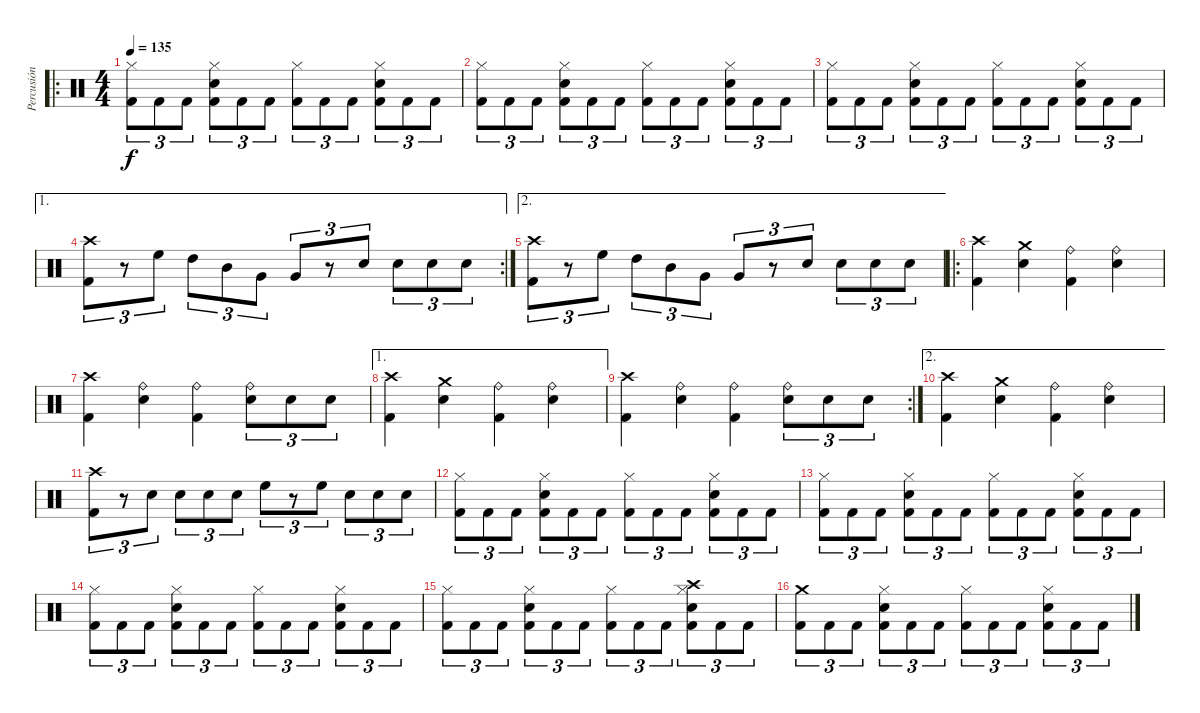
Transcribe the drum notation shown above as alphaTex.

\track ("Percusión" "Percusión") {instrument percussion}
\staff {score}
\articulation defaults
\ro
\ts (4 4)
\tempo 135
\clef neutral
\ks c
("Hi-Hat (closed)" "Kick (hit) 2").8{tu (3 2) dy f} "Kick (hit) 2".8{tu (3 2)} "Kick (hit) 2".8{tu (3 2)} ("Hi-Hat (closed)" "Snare (hit) 2" "Kick (hit) 2").8{tu (3 2)} "Kick (hit) 2".8{tu (3 2)} "Kick (hit) 2".8{tu (3 2)} ("Hi-Hat (closed)" "Kick (hit) 2").8{tu (3 2)} "Kick (hit) 2".8{tu (3 2)} "Kick (hit) 2".8{tu (3 2)} ("Hi-Hat (closed)" "Snare (hit) 2" "Kick (hit) 2").8{tu (3 2)} "Kick (hit) 2".8{tu (3 2)} "Kick (hit) 2".8{tu (3 2)} |
("Hi-Hat (closed)" "Kick (hit) 2").8{tu (3 2)} "Kick (hit) 2".8{tu (3 2)} "Kick (hit) 2".8{tu (3 2)} ("Hi-Hat (closed)" "Snare (hit) 2" "Kick (hit) 2").8{tu (3 2)} "Kick (hit) 2".8{tu (3 2)} "Kick (hit) 2".8{tu (3 2)} ("Hi-Hat (closed)" "Kick (hit) 2").8{tu (3 2)} "Kick (hit) 2".8{tu (3 2)} "Kick (hit) 2".8{tu (3 2)} ("Hi-Hat (closed)" "Snare (hit) 2" "Kick (hit) 2").8{tu (3 2)} "Kick (hit) 2".8{tu (3 2)} "Kick (hit) 2".8{tu (3 2)} |
("Hi-Hat (closed)" "Kick (hit) 2").8{tu (3 2)} "Kick (hit) 2".8{tu (3 2)} "Kick (hit) 2".8{tu (3 2)} ("Hi-Hat (closed)" "Snare (hit) 2" "Kick (hit) 2").8{tu (3 2)} "Kick (hit) 2".8{tu (3 2)} "Kick (hit) 2".8{tu (3 2)} ("Hi-Hat (closed)" "Kick (hit) 2").8{tu (3 2)} "Kick (hit) 2".8{tu (3 2)} "Kick (hit) 2".8{tu (3 2)} ("Hi-Hat (closed)" "Snare (hit) 2" "Kick (hit) 2").8{tu (3 2)} "Kick (hit) 2".8{tu (3 2)} "Kick (hit) 2".8{tu (3 2)} |
\ae 1
\rc 2
("Crash high (hit)" "Kick (hit) 2").8{tu (3 2)} r.8{tu (3 2)} "High Floor Tom (hit)".8{tu (3 2)} "High Tom (hit)".8{tu (3 2)} "Mid Tom (hit)".8{tu (3 2)} "Very Low Tom (hit)".8{tu (3 2)} "Very Low Tom (hit)".8{tu (3 2)} r.8{tu (3 2)} "Snare (hit) 2".8{tu (3 2)} "Snare (hit) 2".8{tu (3 2)} "Snare (hit) 2".8{tu (3 2)} "Snare (hit) 2".8{tu (3 2)} |
\ae 2
("Crash high (hit)" "Kick (hit) 2").8{tu (3 2)} r.8{tu (3 2)} "High Floor Tom (hit)".8{tu (3 2)} "High Tom (hit)".8{tu (3 2)} "Mid Tom (hit)".8{tu (3 2)} "Very Low Tom (hit)".8{tu (3 2)} "Very Low Tom (hit)".8{tu (3 2)} r.8{tu (3 2)} "Snare (hit) 2".8{tu (3 2)} "Snare (hit) 2".8{tu (3 2)} "Snare (hit) 2".8{tu (3 2)} "Snare (hit) 2".8{tu (3 2)} |
\ro
("Crash high (hit)" "Kick (hit) 2").4 ("Crash medium (hit)" "Snare (hit) 2").4 ("Ride (bell)" "Kick (hit) 2").4 ("Ride (bell)" "Snare (hit) 2").4 |
("Crash high (hit)" "Kick (hit) 2").4 ("Ride (bell)" "Snare (hit) 2").4 ("Ride (bell)" "Kick (hit) 2").4 ("Ride (bell)" "Snare (hit) 2").8{tu (3 2)} "Snare (hit) 2".8{tu (3 2)} "Snare (hit) 2".8{tu (3 2)} |
\ae 1
("Crash high (hit)" "Kick (hit) 2").4 ("Crash medium (hit)" "Snare (hit) 2").4 ("Ride (bell)" "Kick (hit) 2").4 ("Ride (bell)" "Snare (hit) 2").4 |
\rc 2
("Crash high (hit)" "Kick (hit) 2").4 ("Ride (bell)" "Snare (hit) 2").4 ("Ride (bell)" "Kick (hit) 2").4 ("Ride (bell)" "Snare (hit) 2").8{tu (3 2)} "Snare (hit) 2".8{tu (3 2)} "Snare (hit) 2".8{tu (3 2)} |
\ae 2
("Crash high (hit)" "Kick (hit) 2").4 ("Crash medium (hit)" "Snare (hit) 2").4 ("Ride (bell)" "Kick (hit) 2").4 ("Ride (bell)" "Snare (hit) 2").4 |
("Crash high (hit)" "Kick (hit) 2").8{tu (3 2)} r.8{tu (3 2)} "Snare (hit) 2".8{tu (3 2)} "Snare (hit) 2".8{tu (3 2)} "Snare (hit) 2".8{tu (3 2)} "Snare (hit) 2".8{tu (3 2)} "High Floor Tom (hit)".8{tu (3 2)} r.8{tu (3 2)} "High Floor Tom (hit)".8{tu (3 2)} "Snare (hit) 2".8{tu (3 2)} "Snare (hit) 2".8{tu (3 2)} "Snare (hit) 2".8{tu (3 2)} |
("Hi-Hat (closed)" "Kick (hit) 2").8{tu (3 2)} "Kick (hit) 2".8{tu (3 2)} "Kick (hit) 2".8{tu (3 2)} ("Hi-Hat (closed)" "Snare (hit) 2" "Kick (hit) 2").8{tu (3 2)} "Kick (hit) 2".8{tu (3 2)} "Kick (hit) 2".8{tu (3 2)} ("Hi-Hat (closed)" "Kick (hit) 2").8{tu (3 2)} "Kick (hit) 2".8{tu (3 2)} "Kick (hit) 2".8{tu (3 2)} ("Hi-Hat (closed)" "Snare (hit) 2" "Kick (hit) 2").8{tu (3 2)} "Kick (hit) 2".8{tu (3 2)} "Kick (hit) 2".8{tu (3 2)} |
("Hi-Hat (closed)" "Kick (hit) 2").8{tu (3 2)} "Kick (hit) 2".8{tu (3 2)} "Kick (hit) 2".8{tu (3 2)} ("Hi-Hat (closed)" "Snare (hit) 2" "Kick (hit) 2").8{tu (3 2)} "Kick (hit) 2".8{tu (3 2)} "Kick (hit) 2".8{tu (3 2)} ("Hi-Hat (closed)" "Kick (hit) 2").8{tu (3 2)} "Kick (hit) 2".8{tu (3 2)} "Kick (hit) 2".8{tu (3 2)} ("Hi-Hat (closed)" "Snare (hit) 2" "Kick (hit) 2").8{tu (3 2)} "Kick (hit) 2".8{tu (3 2)} "Kick (hit) 2".8{tu (3 2)} |
("Hi-Hat (closed)" "Kick (hit) 2").8{tu (3 2)} "Kick (hit) 2".8{tu (3 2)} "Kick (hit) 2".8{tu (3 2)} ("Hi-Hat (closed)" "Snare (hit) 2" "Kick (hit) 2").8{tu (3 2)} "Kick (hit) 2".8{tu (3 2)} "Kick (hit) 2".8{tu (3 2)} ("Hi-Hat (closed)" "Kick (hit) 2").8{tu (3 2)} "Kick (hit) 2".8{tu (3 2)} "Kick (hit) 2".8{tu (3 2)} ("Hi-Hat (closed)" "Snare (hit) 2" "Kick (hit) 2").8{tu (3 2)} "Kick (hit) 2".8{tu (3 2)} "Kick (hit) 2".8{tu (3 2)} |
("Hi-Hat (closed)" "Kick (hit) 2").8{tu (3 2)} "Kick (hit) 2".8{tu (3 2)} "Kick (hit) 2".8{tu (3 2)} ("Hi-Hat (closed)" "Snare (hit) 2" "Kick (hit) 2").8{tu (3 2)} "Kick (hit) 2".8{tu (3 2)} "Kick (hit) 2".8{tu (3 2)} ("Hi-Hat (closed)" "Kick (hit) 2").8{tu (3 2)} "Kick (hit) 2".8{tu (3 2)} "Kick (hit) 2".8{tu (3 2)} ("Crash high (hit)" "Hi-Hat (closed)" "Snare (hit) 2" "Kick (hit) 2").8{tu (3 2)} "Kick (hit) 2".8{tu (3 2)} "Kick (hit) 2".8{tu (3 2)} |
("Crash medium (hit)" "Kick (hit) 2").8{tu (3 2)} "Kick (hit) 2".8{tu (3 2)} "Kick (hit) 2".8{tu (3 2)} ("Hi-Hat (closed)" "Snare (hit) 2" "Kick (hit) 2").8{tu (3 2)} "Kick (hit) 2".8{tu (3 2)} "Kick (hit) 2".8{tu (3 2)} ("Hi-Hat (closed)" "Kick (hit) 2").8{tu (3 2)} "Kick (hit) 2".8{tu (3 2)} "Kick (hit) 2".8{tu (3 2)} ("Hi-Hat (closed)" "Snare (hit) 2" "Kick (hit) 2").8{tu (3 2)} "Kick (hit) 2".8{tu (3 2)} "Kick (hit) 2".8{tu (3 2)}
